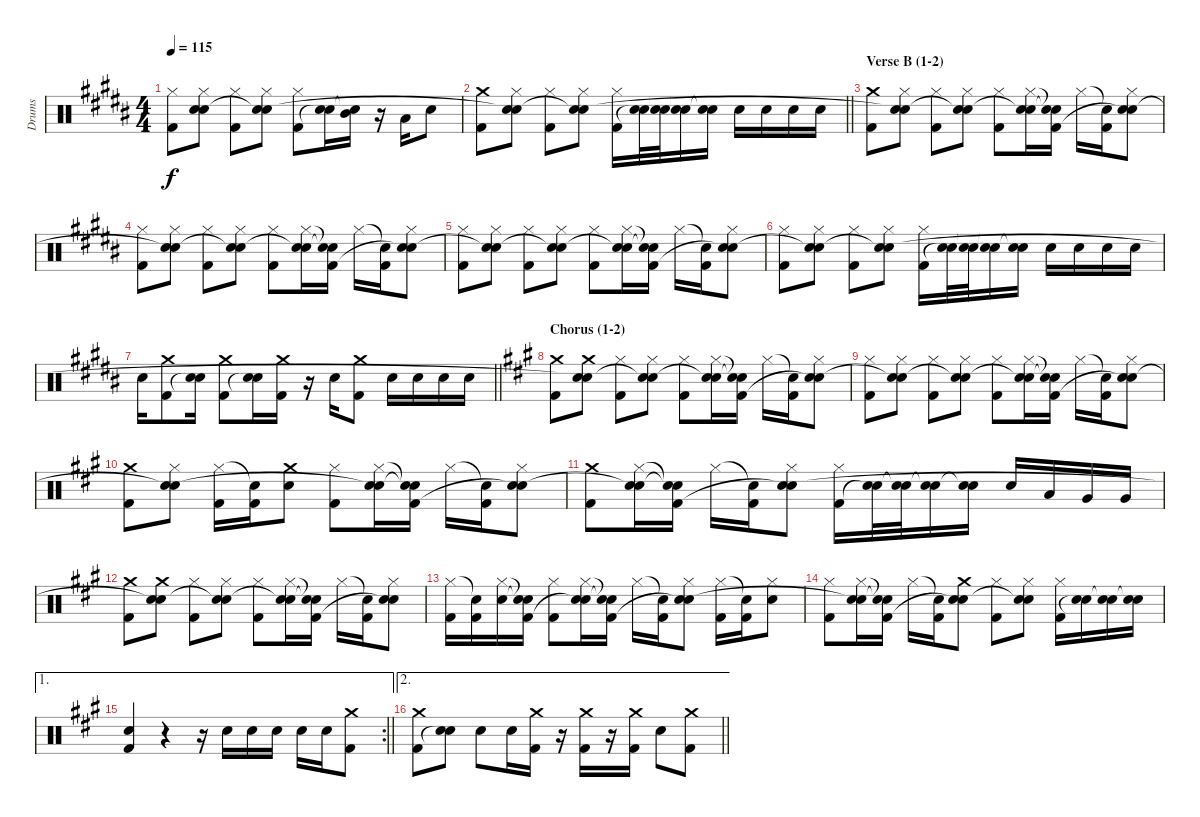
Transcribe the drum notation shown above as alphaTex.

\track ("Drums" "Drums") {instrument percussion}
\staff {score}
\articulation defaults
\ts (4 4)
\tempo 115
\clef neutral
\ks b
("Hi-Hat (closed)" "Kick (hit) 2").8{dy f} ("Hi-Hat (closed)" "Electric Snare (hit)" "Snare (hit)"{t}).8 ("Hi-Hat (closed)" "Kick (hit) 2").8 ("Hi-Hat (closed)" "Electric Snare (hit)" "Snare (hit)"{t}).8 ("Hi-Hat (closed)" "Kick (hit) 2").8 ("Electric Snare (hit)" "Snare (hit)"{t}).16 ("Mid Tom (hit)" "Snare (hit)"{t}).16 r.16 "Low Tom (hit)".16 "Electric Snare (hit)".8 |
\barLineRight lightlight
("Crash medium (hit)" "Kick (hit) 2").8 ("Hi-Hat (closed)" "Electric Snare (hit)" "Snare (hit)"{t}).8 ("Hi-Hat (closed)" "Kick (hit) 2").8 ("Hi-Hat (closed)" "Electric Snare (hit)" "Snare (hit)"{t}).8 ("Hi-Hat (closed)" "Kick (hit) 2").16 ("Electric Snare (hit)" "Snare (hit)"{t}).32 ("Electric Snare (hit)" "Snare (hit)"{t}).32 ("Electric Snare (hit)" "Snare (hit)"{t}).16 ("Electric Snare (hit)" "Snare (hit)"{t}).16 "Electric Snare (hit)".16 "Electric Snare (hit)".16 "Electric Snare (hit)".16 "Electric Snare (hit)".16 |
\section ("" "Verse B (1-2)")
("Crash medium (hit)" "Kick (hit) 2").8 ("Hi-Hat (closed)" "Electric Snare (hit)" "Snare (hit)"{t}).8 ("Hi-Hat (closed)" "Kick (hit) 2").8 ("Hi-Hat (closed)" "Electric Snare (hit)" "Snare (hit)"{t}).8 ("Hi-Hat (closed)" "Kick (hit) 2").8 ("Hi-Hat (closed)" "Electric Snare (hit)" "Snare (hit)"{t}).16 ("Snare (hit)"{t} "Snare (hit)"{t} "Kick (hit) 2").16 "Hi-Hat (closed)".16 ("Snare (hit)"{t} "Kick (hit) 2").16 ("Hi-Hat (closed)" "Electric Snare (hit)" "Snare (hit)"{t}).8 |
("Hi-Hat (closed)" "Kick (hit) 2").8 ("Hi-Hat (closed)" "Electric Snare (hit)" "Snare (hit)"{t}).8 ("Hi-Hat (closed)" "Kick (hit) 2").8 ("Hi-Hat (closed)" "Electric Snare (hit)" "Snare (hit)"{t}).8 ("Hi-Hat (closed)" "Kick (hit) 2").8 ("Hi-Hat (closed)" "Electric Snare (hit)" "Snare (hit)"{t}).16 ("Snare (hit)"{t} "Snare (hit)"{t} "Kick (hit) 2").16 "Hi-Hat (closed)".16 ("Snare (hit)"{t} "Kick (hit) 2").16 ("Hi-Hat (closed)" "Electric Snare (hit)" "Snare (hit)"{t}).8 |
("Hi-Hat (closed)" "Kick (hit) 2").8 ("Hi-Hat (closed)" "Electric Snare (hit)" "Snare (hit)"{t}).8 ("Hi-Hat (closed)" "Kick (hit) 2").8 ("Hi-Hat (closed)" "Electric Snare (hit)" "Snare (hit)"{t}).8 ("Hi-Hat (closed)" "Kick (hit) 2").8 ("Hi-Hat (closed)" "Electric Snare (hit)" "Snare (hit)"{t}).16 ("Snare (hit)"{t} "Snare (hit)"{t} "Kick (hit) 2").16 "Hi-Hat (closed)".16 ("Snare (hit)"{t} "Kick (hit) 2").16 ("Hi-Hat (closed)" "Electric Snare (hit)" "Snare (hit)"{t}).8 |
("Hi-Hat (closed)" "Kick (hit) 2").8 ("Hi-Hat (closed)" "Electric Snare (hit)" "Snare (hit)"{t}).8 ("Hi-Hat (closed)" "Kick (hit) 2").8 ("Hi-Hat (closed)" "Electric Snare (hit)" "Snare (hit)"{t}).8 ("Hi-Hat (closed)" "Kick (hit) 2").16 ("Electric Snare (hit)" "Snare (hit)"{t}).32 ("Electric Snare (hit)" "Snare (hit)"{t}).32 ("Electric Snare (hit)" "Snare (hit)"{t}).16 ("Electric Snare (hit)" "Snare (hit)"{t}).16 "Electric Snare (hit)".16 "Electric Snare (hit)".16 "Electric Snare (hit)".16 "Electric Snare (hit)".16 |
\barLineRight lightlight "Electric Snare (hit)".16
("Crash medium (hit)" "Kick (hit) 2").8 ("Electric Snare (hit)" "Snare (hit)"{t}).16 ("Crash medium (hit)" "Kick (hit) 2").8 ("Electric Snare (hit)" "Snare (hit)"{t}).16 ("Crash medium (hit)" "Kick (hit) 2").16 r.16 "Electric Snare (hit)".16 ("Crash medium (hit)" "Kick (hit) 2").8 "Electric Snare (hit)".16 "Electric Snare (hit)".16 "Electric Snare (hit)".16 "Electric Snare (hit)".16 |
\section ("" "Chorus (1-2)")
\ks a
("Crash medium (hit)" "Kick (hit) 2").8 ("Crash medium (hit)" "Electric Snare (hit)" "Snare (hit)"{t}).8 ("Hi-Hat (closed)" "Kick (hit) 2").8 ("Hi-Hat (closed)" "Electric Snare (hit)" "Snare (hit)"{t}).8 ("Hi-Hat (closed)" "Kick (hit) 2").8 ("Hi-Hat (closed)" "Electric Snare (hit)" "Snare (hit)"{t}).16 ("Snare (hit)"{t} "Snare (hit)"{t} "Kick (hit) 2").16 "Hi-Hat (closed)".16 ("Snare (hit)"{t} "Kick (hit) 2").16 ("Hi-Hat (closed)" "Electric Snare (hit)" "Snare (hit)"{t}).8 |
("Hi-Hat (closed)" "Kick (hit) 2").8 ("Hi-Hat (closed)" "Electric Snare (hit)" "Snare (hit)"{t}).8 ("Hi-Hat (closed)" "Kick (hit) 2").8 ("Hi-Hat (closed)" "Electric Snare (hit)" "Snare (hit)"{t}).8 ("Hi-Hat (closed)" "Kick (hit) 2").8 ("Hi-Hat (closed)" "Electric Snare (hit)" "Snare (hit)"{t}).16 ("Snare (hit)"{t} "Snare (hit)"{t} "Kick (hit) 2").16 "Hi-Hat (closed)".16 ("Snare (hit)"{t} "Kick (hit) 2").16 ("Hi-Hat (closed)" "Electric Snare (hit)" "Snare (hit)"{t}).8 |
("Crash medium (hit)" "Kick (hit) 2").8 ("Hi-Hat (closed)" "Electric Snare (hit)" "Snare (hit)"{t}).8 ("Hi-Hat (closed)" "Kick (hit) 2").16 ("Snare (hit)"{t} "Kick (hit) 2").16 ("Crash medium (hit)" "Electric Snare (hit)").8 ("Hi-Hat (closed)" "Kick (hit) 2").8 ("Hi-Hat (closed)" "Electric Snare (hit)" "Snare (hit)"{t}).16 ("Snare (hit)"{t} "Snare (hit)"{t} "Kick (hit) 2").16 "Hi-Hat (closed)".16 ("Snare (hit)"{t} "Kick (hit) 2").16 ("Hi-Hat (closed)" "Electric Snare (hit)" "Snare (hit)"{t}).8 |
("Crash medium (hit)" "Kick (hit) 2").8 ("Hi-Hat (closed)" "Electric Snare (hit)" "Snare (hit)"{t}).16 ("Snare (hit)"{t} "Snare (hit)"{t} "Kick (hit) 2").16 "Hi-Hat (closed)".16 ("Snare (hit)"{t} "Kick (hit) 2").16 ("Hi-Hat (closed)" "Electric Snare (hit)" "Snare (hit)"{t}).8 ("Hi-Hat (closed)" "Kick (hit) 2").16 ("Electric Snare (hit)" "Snare (hit)"{t}).32 ("Electric Snare (hit)" "Snare (hit)"{t}).32 ("Electric Snare (hit)" "Snare (hit)"{t}).16 ("Electric Snare (hit)" "Snare (hit)"{t}).16 "Electric Snare (hit)".16 "Low Tom (hit)".16 "Very Low Tom (hit)".16 "Very Low Tom (hit)".16 |
("Crash medium (hit)" "Kick (hit) 2").8 ("Crash medium (hit)" "Electric Snare (hit)" "Snare (hit)"{t}).8 ("Hi-Hat (closed)" "Kick (hit) 2").8 ("Hi-Hat (closed)" "Electric Snare (hit)" "Snare (hit)"{t}).8 ("Hi-Hat (closed)" "Kick (hit) 2").8 ("Hi-Hat (closed)" "Electric Snare (hit)" "Snare (hit)"{t}).16 ("Snare (hit)"{t} "Snare (hit)"{t} "Kick (hit) 2").16 "Hi-Hat (closed)".16 ("Snare (hit)"{t} "Kick (hit) 2").16 ("Hi-Hat (closed)" "Electric Snare (hit)" "Snare (hit)"{t}).8 |
("Hi-Hat (closed)" "Kick (hit) 2").16 ("Snare (hit)"{t} "Kick (hit) 2").16 ("Hi-Hat (closed)" "Electric Snare (hit)").16 ("Snare (hit)"{t} "Snare (hit)"{t} "Kick (hit) 2").16 ("Hi-Hat (closed)" "Kick (hit) 2").8 ("Hi-Hat (closed)" "Electric Snare (hit)" "Snare (hit)"{t}).16 ("Snare (hit)"{t} "Snare (hit)"{t} "Kick (hit) 2").16 "Hi-Hat (closed)".16 ("Snare (hit)"{t} "Kick (hit) 2").16 ("Hi-Hat (closed)" "Electric Snare (hit)" "Snare (hit)"{t}).8 ("Hi-Hat (closed)" "Kick (hit) 2").16 ("Snare (hit)"{t} "Kick (hit) 2").16 ("Hi-Hat (closed)" "Electric Snare (hit)").8 |
("Hi-Hat (closed)" "Kick (hit) 2").8 ("Hi-Hat (closed)" "Electric Snare (hit)" "Snare (hit)"{t}).16 ("Snare (hit)"{t} "Snare (hit)"{t} "Kick (hit) 2").16 "Hi-Hat (closed)".16 ("Snare (hit)"{t} "Kick (hit) 2").16 ("Crash medium (hit)" "Electric Snare (hit)" "Snare (hit)"{t}).8 ("Hi-Hat (closed)" "Kick (hit) 2").8 ("Hi-Hat (closed)" "Electric Snare (hit)" "Snare (hit)"{t}).8 ("Hi-Hat (closed)" "Kick (hit) 2").16 ("Electric Snare (hit)" "Snare (hit)"{t}).16 ("Electric Snare (hit)" "Snare (hit)"{t}).16 ("Electric Snare (hit)" "Snare (hit)"{t}).16 |
\ae 1
\rc 2
\barLineRight lightlight
("Electric Snare (hit)" "Kick (hit) 2").4 r.4 r.16 "Electric Snare (hit)".16 "Electric Snare (hit)".16 "Electric Snare (hit)".16 "Electric Snare (hit)".16 "Electric Snare (hit)".16 ("Crash medium (hit)" "Kick (hit) 2").8 |
\ae 2
\barLineRight lightlight
("Crash medium (hit)" "Kick (hit) 2").8 ("Electric Snare (hit)" "Snare (hit)"{t}).8 "Electric Snare (hit)".8 "Electric Snare (hit)".16 ("Crash medium (hit)" "Kick (hit) 2").16 r.16 ("Crash medium (hit)" "Kick (hit) 2").16 r.16 ("Crash medium (hit)" "Kick (hit) 2").16 "Electric Snare (hit)".8 ("Crash medium (hit)" "Kick (hit) 2").8
